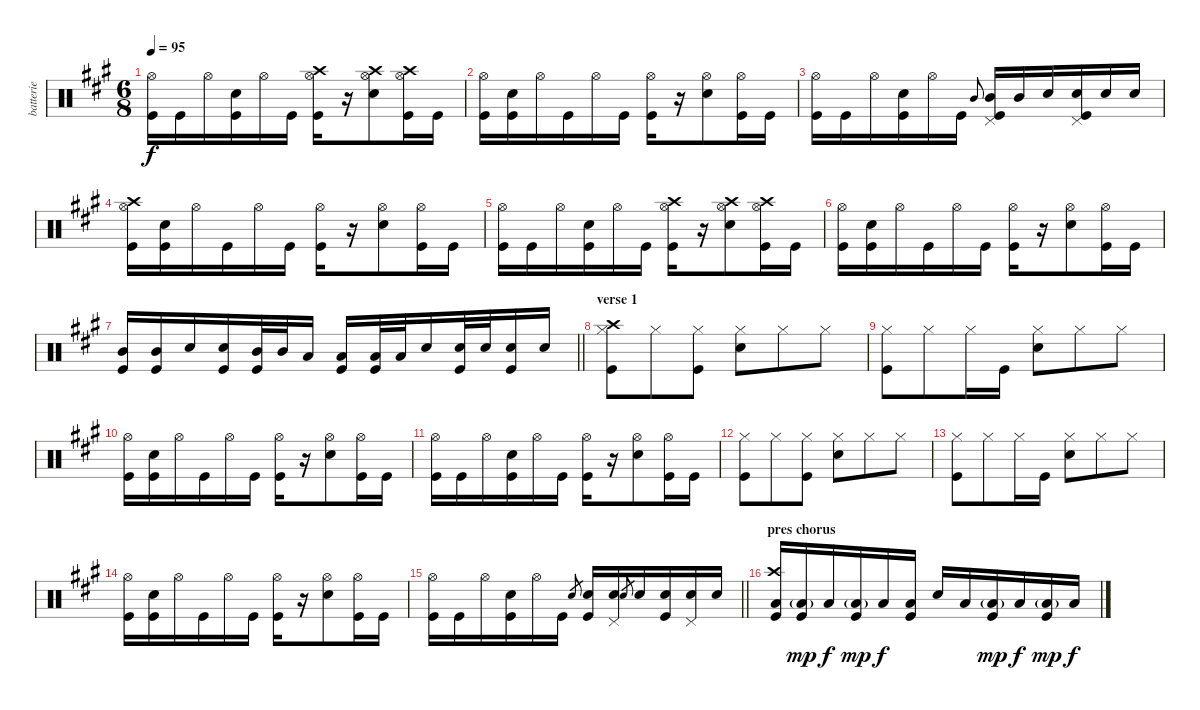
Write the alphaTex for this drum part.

\track ("batterie" "batterie") {instrument percussion}
\staff {score}
\articulation defaults
\ts (6 8)
\tempo 95
\clef neutral
\ks a
("Hi-Hat (open)" "Kick (hit)").16{dy f} "Kick (hit)".16 "Hi-Hat (open)".16 ("Electric Snare (hit)" "Kick (hit)").16 "Hi-Hat (open)".16 "Kick (hit)".16 ("Crash high (hit)" "Hi-Hat (open)" "Kick (hit)").16 r.16 ("Crash high (hit)" "Hi-Hat (open)" "Electric Snare (hit)").8 ("Crash high (hit)" "Hi-Hat (open)" "Kick (hit)").16 "Kick (hit)".16 |
("Hi-Hat (open)" "Kick (hit)").16 ("Electric Snare (hit)" "Kick (hit)").16 "Hi-Hat (open)".16 "Kick (hit)".16 "Hi-Hat (open)".16 "Kick (hit)".16 ("Hi-Hat (open)" "Kick (hit)").16 r.16 ("Hi-Hat (open)" "Electric Snare (hit)").8 ("Hi-Hat (open)" "Kick (hit)").16 "Kick (hit)".16 |
("Hi-Hat (open)" "Kick (hit)").16 "Kick (hit)".16 "Hi-Hat (open)".16 ("Electric Snare (hit)" "Kick (hit)").16 "Hi-Hat (open)".16 "Kick (hit)".16 "Mid Tom (hit)".8{gr onbeat} ("Pedal Hi-Hat (hit)" "Mid Tom (hit)" "Kick (hit)").16 "Mid Tom (hit)".16 "Electric Snare (hit)".16 ("Pedal Hi-Hat (hit)" "Electric Snare (hit)" "Kick (hit)").16 "Electric Snare (hit)".16 "Electric Snare (hit)".16 |
("Crash high (hit)" "Hi-Hat (open)" "Kick (hit)").16 ("Electric Snare (hit)" "Kick (hit)").16 "Hi-Hat (open)".16 "Kick (hit)".16 "Hi-Hat (open)".16 "Kick (hit)".16 ("Hi-Hat (open)" "Kick (hit)").16 r.16 ("Hi-Hat (open)" "Electric Snare (hit)").8 ("Hi-Hat (open)" "Kick (hit)").16 "Kick (hit)".16 |
("Hi-Hat (open)" "Kick (hit)").16 "Kick (hit)".16 "Hi-Hat (open)".16 ("Electric Snare (hit)" "Kick (hit)").16 "Hi-Hat (open)".16 "Kick (hit)".16 ("Crash high (hit)" "Hi-Hat (open)" "Kick (hit)").16 r.16 ("Crash high (hit)" "Hi-Hat (open)" "Electric Snare (hit)").8 ("Crash high (hit)" "Hi-Hat (open)" "Kick (hit)").16 "Kick (hit)".16 |
("Hi-Hat (open)" "Kick (hit)").16 ("Electric Snare (hit)" "Kick (hit)").16 "Hi-Hat (open)".16 "Kick (hit)".16 "Hi-Hat (open)".16 "Kick (hit)".16 ("Hi-Hat (open)" "Kick (hit)").16 r.16 ("Hi-Hat (open)" "Electric Snare (hit)").8 ("Hi-Hat (open)" "Kick (hit)").16 "Kick (hit)".16 |
\barLineRight lightlight
("Mid Tom (hit)" "Kick (hit)").16 ("Mid Tom (hit)" "Kick (hit)").16 "Electric Snare (hit)".16 ("Electric Snare (hit)" "Kick (hit)").16 ("Mid Tom (hit)" "Kick (hit)").32 "Mid Tom (hit)".32 "Low Tom (hit)".16 ("Low Tom (hit)" "Kick (hit)").16 ("Low Tom (hit)" "Kick (hit)").32 "Low Tom (hit)".32 "Electric Snare (hit)".16 ("Electric Snare (hit)" "Kick (hit)").32 "Electric Snare (hit)".32 ("Electric Snare (hit)" "Kick (hit)").16 "Electric Snare (hit)".16 |
\section ("" "verse 1")
("Crash high (hit)" "Hi-Hat (closed)" "Kick (hit)").8 "Hi-Hat (closed)".8 ("Hi-Hat (closed)" "Kick (hit)").8 ("Hi-Hat (closed)" "Electric Snare (hit)").8 "Hi-Hat (closed)".8 "Hi-Hat (closed)".8 |
("Hi-Hat (closed)" "Kick (hit)").8 "Hi-Hat (closed)".8 "Hi-Hat (closed)".16 "Kick (hit)".16 ("Electric Snare (hit)" "Hi-Hat (closed)").8 "Hi-Hat (closed)".8 "Hi-Hat (closed)".8 |
("Hi-Hat (open)" "Kick (hit)").16 ("Electric Snare (hit)" "Kick (hit)").16 "Hi-Hat (open)".16 "Kick (hit)".16 "Hi-Hat (open)".16 "Kick (hit)".16 ("Hi-Hat (open)" "Kick (hit)").16 r.16 ("Hi-Hat (open)" "Electric Snare (hit)").8 ("Hi-Hat (open)" "Kick (hit)").16 "Kick (hit)".16 |
("Hi-Hat (open)" "Kick (hit)").16 "Kick (hit)".16 "Hi-Hat (open)".16 ("Electric Snare (hit)" "Kick (hit)").16 "Hi-Hat (open)".16 "Kick (hit)".16 ("Hi-Hat (open)" "Kick (hit)").16 r.16 ("Hi-Hat (open)" "Electric Snare (hit)").8 ("Hi-Hat (open)" "Kick (hit)").16 "Kick (hit)".16 |
("Hi-Hat (closed)" "Kick (hit)").8 "Hi-Hat (closed)".8 ("Hi-Hat (closed)" "Kick (hit)").8 ("Hi-Hat (closed)" "Electric Snare (hit)").8 "Hi-Hat (closed)".8 "Hi-Hat (closed)".8 |
("Hi-Hat (closed)" "Kick (hit)").8 "Hi-Hat (closed)".8 "Hi-Hat (closed)".16 "Kick (hit)".16 ("Electric Snare (hit)" "Hi-Hat (closed)").8 "Hi-Hat (closed)".8 "Hi-Hat (closed)".8 |
("Hi-Hat (open)" "Kick (hit)").16 ("Electric Snare (hit)" "Kick (hit)").16 "Hi-Hat (open)".16 "Kick (hit)".16 "Hi-Hat (open)".16 "Kick (hit)".16 ("Hi-Hat (open)" "Kick (hit)").16 r.16 ("Hi-Hat (open)" "Electric Snare (hit)").8 ("Hi-Hat (open)" "Kick (hit)").16 "Kick (hit)".16 |
\barLineRight lightlight
("Hi-Hat (open)" "Kick (hit)").16 "Kick (hit)".16 "Hi-Hat (open)".16 ("Electric Snare (hit)" "Kick (hit)").16 "Hi-Hat (open)".16 "Kick (hit)".16 "Electric Snare (hit)".8{gr} ("Electric Snare (hit)" "Kick (hit)").16 ("Pedal Hi-Hat (hit)" "Electric Snare (hit)").16 "Electric Snare (hit)".8{gr} "Electric Snare (hit)".16 ("Electric Snare (hit)" "Kick (hit)").16 ("Pedal Hi-Hat (hit)" "Electric Snare (hit)").16 "Electric Snare (hit)".16 |
\section ("" "pres chorus")
("Crash high (hit)" "Low Tom (hit)" "Kick (hit)").16 ("Low Tom (hit)"{g} "Kick (hit)").16{dy mp} "Low Tom (hit)".16{dy f} ("Low Tom (hit)"{g} "Kick (hit)").16{dy mp} "Low Tom (hit)".16{dy f} ("Low Tom (hit)" "Kick (hit)").16 "Electric Snare (hit)".16 "Low Tom (hit)".16 ("Low Tom (hit)"{g} "Kick (hit)").16{dy mp} "Low Tom (hit)".16{dy f} ("Low Tom (hit)"{g} "Kick (hit)").16{dy mp} "Low Tom (hit)".16{dy f}
